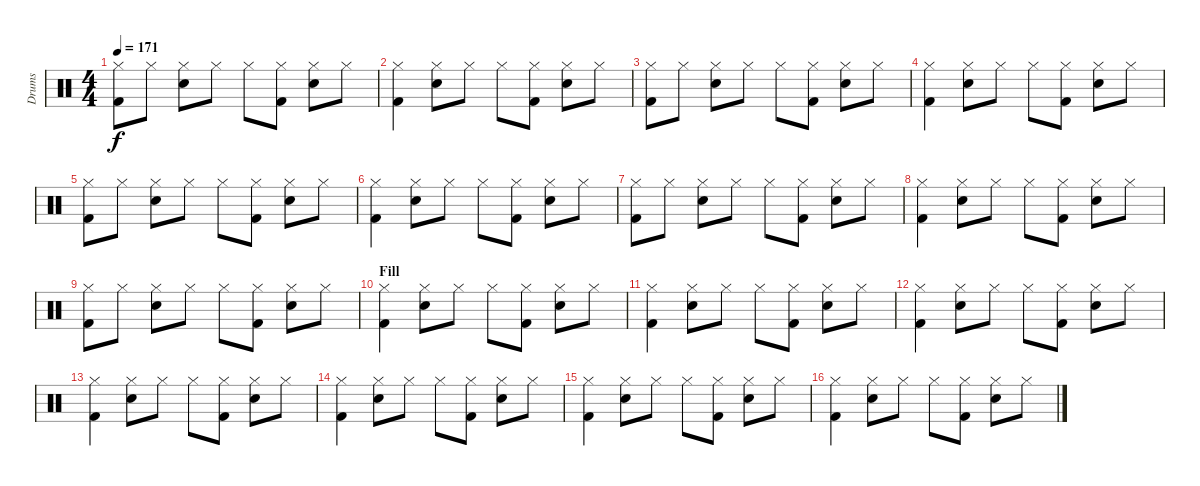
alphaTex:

\track ("Drums" "Drums") {instrument percussion}
\staff {score}
\articulation defaults
\ts (4 4)
\tempo 171
\clef neutral
\ks c
("Hi-Hat (closed)" "Kick (hit) 2").8{dy f} "Hi-Hat (closed)".8 ("Hi-Hat (closed)" "Electric Snare (hit)").8 "Hi-Hat (closed)".8 "Hi-Hat (closed)".8 ("Hi-Hat (closed)" "Kick (hit) 2").8 ("Hi-Hat (closed)" "Electric Snare (hit)").8 "Hi-Hat (closed)".8 |
("Hi-Hat (closed)" "Kick (hit) 2").4 ("Hi-Hat (closed)" "Electric Snare (hit)").8 "Hi-Hat (closed)".8 "Hi-Hat (closed)".8 ("Hi-Hat (closed)" "Kick (hit) 2").8 ("Hi-Hat (closed)" "Electric Snare (hit)").8 "Hi-Hat (closed)".8 |
("Hi-Hat (closed)" "Kick (hit) 2").8 "Hi-Hat (closed)".8 ("Hi-Hat (closed)" "Electric Snare (hit)").8 "Hi-Hat (closed)".8 "Hi-Hat (closed)".8 ("Hi-Hat (closed)" "Kick (hit) 2").8 ("Hi-Hat (closed)" "Electric Snare (hit)").8 "Hi-Hat (closed)".8 |
("Hi-Hat (closed)" "Kick (hit) 2").4 ("Hi-Hat (closed)" "Electric Snare (hit)").8 "Hi-Hat (closed)".8 "Hi-Hat (closed)".8 ("Hi-Hat (closed)" "Kick (hit) 2").8 ("Hi-Hat (closed)" "Electric Snare (hit)").8 "Hi-Hat (closed)".8 |
("Hi-Hat (closed)" "Kick (hit) 2").8 "Hi-Hat (closed)".8 ("Hi-Hat (closed)" "Electric Snare (hit)").8 "Hi-Hat (closed)".8 "Hi-Hat (closed)".8 ("Hi-Hat (closed)" "Kick (hit) 2").8 ("Hi-Hat (closed)" "Electric Snare (hit)").8 "Hi-Hat (closed)".8 |
("Hi-Hat (closed)" "Kick (hit) 2").4 ("Hi-Hat (closed)" "Electric Snare (hit)").8 "Hi-Hat (closed)".8 "Hi-Hat (closed)".8 ("Hi-Hat (closed)" "Kick (hit) 2").8 ("Hi-Hat (closed)" "Electric Snare (hit)").8 "Hi-Hat (closed)".8 |
("Hi-Hat (closed)" "Kick (hit) 2").8 "Hi-Hat (closed)".8 ("Hi-Hat (closed)" "Electric Snare (hit)").8 "Hi-Hat (closed)".8 "Hi-Hat (closed)".8 ("Hi-Hat (closed)" "Kick (hit) 2").8 ("Hi-Hat (closed)" "Electric Snare (hit)").8 "Hi-Hat (closed)".8 |
("Hi-Hat (closed)" "Kick (hit) 2").4 ("Hi-Hat (closed)" "Electric Snare (hit)").8 "Hi-Hat (closed)".8 "Hi-Hat (closed)".8 ("Hi-Hat (closed)" "Kick (hit) 2").8 ("Hi-Hat (closed)" "Electric Snare (hit)").8 "Hi-Hat (closed)".8 |
("Hi-Hat (closed)" "Kick (hit) 2").8 "Hi-Hat (closed)".8 ("Hi-Hat (closed)" "Electric Snare (hit)").8 "Hi-Hat (closed)".8 "Hi-Hat (closed)".8 ("Hi-Hat (closed)" "Kick (hit) 2").8 ("Hi-Hat (closed)" "Electric Snare (hit)").8 "Hi-Hat (closed)".8 |
\section ("" "Fill")
("Hi-Hat (closed)" "Kick (hit) 2").4 ("Hi-Hat (closed)" "Electric Snare (hit)").8 "Hi-Hat (closed)".8 "Hi-Hat (closed)".8 ("Hi-Hat (closed)" "Kick (hit) 2").8 ("Hi-Hat (closed)" "Electric Snare (hit)").8 "Hi-Hat (closed)".8 |
("Hi-Hat (closed)" "Kick (hit) 2").4 ("Hi-Hat (closed)" "Electric Snare (hit)").8 "Hi-Hat (closed)".8 "Hi-Hat (closed)".8 ("Hi-Hat (closed)" "Kick (hit) 2").8 ("Hi-Hat (closed)" "Electric Snare (hit)").8 "Hi-Hat (closed)".8 |
("Hi-Hat (closed)" "Kick (hit) 2").4 ("Hi-Hat (closed)" "Electric Snare (hit)").8 "Hi-Hat (closed)".8 "Hi-Hat (closed)".8 ("Hi-Hat (closed)" "Kick (hit) 2").8 ("Hi-Hat (closed)" "Electric Snare (hit)").8 "Hi-Hat (closed)".8 |
("Hi-Hat (closed)" "Kick (hit) 2").4 ("Hi-Hat (closed)" "Electric Snare (hit)").8 "Hi-Hat (closed)".8 "Hi-Hat (closed)".8 ("Hi-Hat (closed)" "Kick (hit) 2").8 ("Hi-Hat (closed)" "Electric Snare (hit)").8 "Hi-Hat (closed)".8 |
("Hi-Hat (closed)" "Kick (hit) 2").4 ("Hi-Hat (closed)" "Electric Snare (hit)").8 "Hi-Hat (closed)".8 "Hi-Hat (closed)".8 ("Hi-Hat (closed)" "Kick (hit) 2").8 ("Hi-Hat (closed)" "Electric Snare (hit)").8 "Hi-Hat (closed)".8 |
("Hi-Hat (closed)" "Kick (hit) 2").4 ("Hi-Hat (closed)" "Electric Snare (hit)").8 "Hi-Hat (closed)".8 "Hi-Hat (closed)".8 ("Hi-Hat (closed)" "Kick (hit) 2").8 ("Hi-Hat (closed)" "Electric Snare (hit)").8 "Hi-Hat (closed)".8 |
("Hi-Hat (closed)" "Kick (hit) 2").4 ("Hi-Hat (closed)" "Electric Snare (hit)").8 "Hi-Hat (closed)".8 "Hi-Hat (closed)".8 ("Hi-Hat (closed)" "Kick (hit) 2").8 ("Hi-Hat (closed)" "Electric Snare (hit)").8 "Hi-Hat (closed)".8
